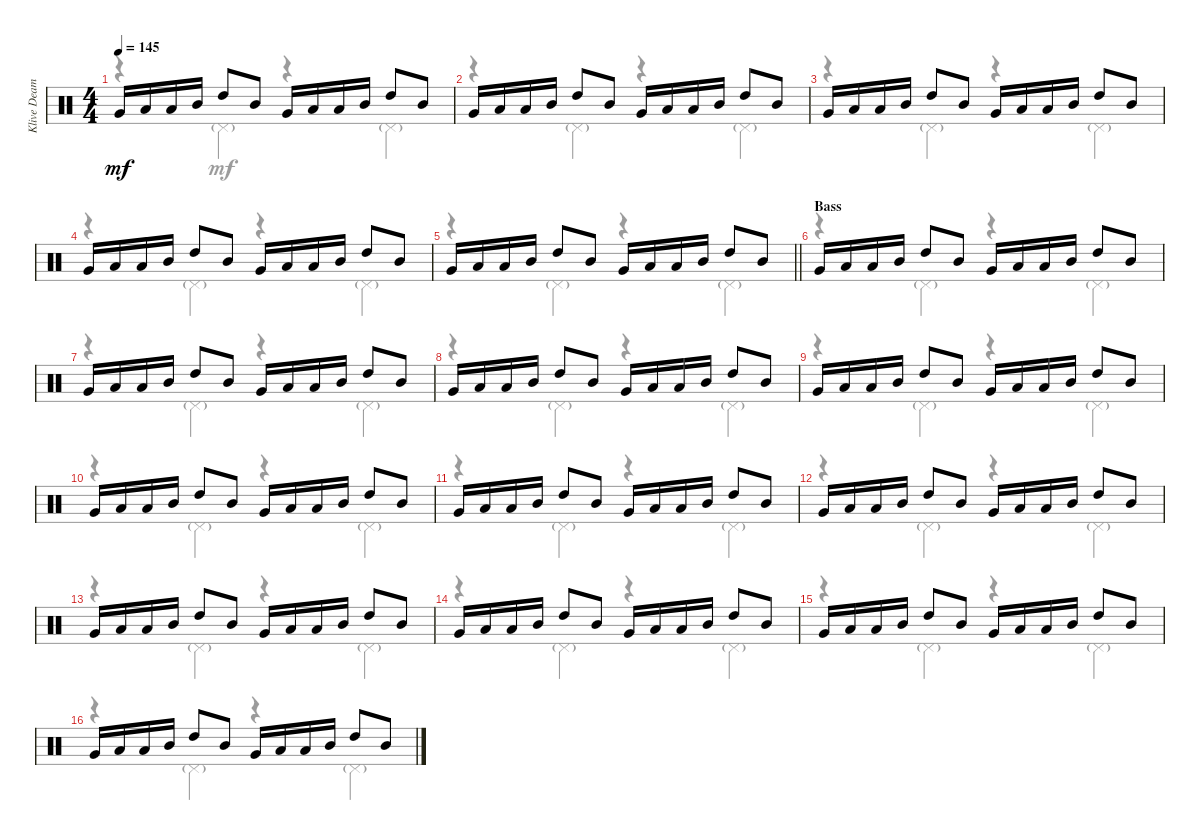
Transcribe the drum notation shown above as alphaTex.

\track ("Klive Deamer" "Klive Deam") {instrument percussion}
\staff {score}
\articulation defaults
\voice
\ts (4 4)
\tempo 145
\clef neutral
\ks c "Very Low Tom (hit)".16{dy mf} "Low Tom (hit)".16 "Low Tom (hit)".16 "Mid Tom (hit)".16 "High Tom (hit)".8 "Mid Tom (hit)".8 "Very Low Tom (hit)".16 "Low Tom (hit)".16 "Low Tom (hit)".16 "Mid Tom (hit)".16 "High Tom (hit)".8 "Mid Tom (hit)".8
|
"Very Low Tom (hit)".16 "Low Tom (hit)".16 "Low Tom (hit)".16 "Mid Tom (hit)".16 "High Tom (hit)".8 "Mid Tom (hit)".8 "Very Low Tom (hit)".16 "Low Tom (hit)".16 "Low Tom (hit)".16 "Mid Tom (hit)".16 "High Tom (hit)".8 "Mid Tom (hit)".8 |
"Very Low Tom (hit)".16 "Low Tom (hit)".16 "Low Tom (hit)".16 "Mid Tom (hit)".16 "High Tom (hit)".8 "Mid Tom (hit)".8 "Very Low Tom (hit)".16 "Low Tom (hit)".16 "Low Tom (hit)".16 "Mid Tom (hit)".16 "High Tom (hit)".8 "Mid Tom (hit)".8 |
"Very Low Tom (hit)".16 "Low Tom (hit)".16 "Low Tom (hit)".16 "Mid Tom (hit)".16 "High Tom (hit)".8 "Mid Tom (hit)".8 "Very Low Tom (hit)".16 "Low Tom (hit)".16 "Low Tom (hit)".16 "Mid Tom (hit)".16 "High Tom (hit)".8 "Mid Tom (hit)".8 |
\barLineRight lightlight "Very Low Tom (hit)".16 "Low Tom (hit)".16 "Low Tom (hit)".16 "Mid Tom (hit)".16 "High Tom (hit)".8 "Mid Tom (hit)".8 "Very Low Tom (hit)".16 "Low Tom (hit)".16 "Low Tom (hit)".16 "Mid Tom (hit)".16 "High Tom (hit)".8 "Mid Tom (hit)".8
|
\section ("" "Bass")
"Very Low Tom (hit)".16 "Low Tom (hit)".16 "Low Tom (hit)".16 "Mid Tom (hit)".16 "High Tom (hit)".8 "Mid Tom (hit)".8 "Very Low Tom (hit)".16 "Low Tom (hit)".16 "Low Tom (hit)".16 "Mid Tom (hit)".16 "High Tom (hit)".8 "Mid Tom (hit)".8 |
"Very Low Tom (hit)".16 "Low Tom (hit)".16 "Low Tom (hit)".16 "Mid Tom (hit)".16 "High Tom (hit)".8 "Mid Tom (hit)".8 "Very Low Tom (hit)".16 "Low Tom (hit)".16 "Low Tom (hit)".16 "Mid Tom (hit)".16 "High Tom (hit)".8 "Mid Tom (hit)".8 |
"Very Low Tom (hit)".16 "Low Tom (hit)".16 "Low Tom (hit)".16 "Mid Tom (hit)".16 "High Tom (hit)".8 "Mid Tom (hit)".8 "Very Low Tom (hit)".16 "Low Tom (hit)".16 "Low Tom (hit)".16 "Mid Tom (hit)".16 "High Tom (hit)".8 "Mid Tom (hit)".8 |
"Very Low Tom (hit)".16 "Low Tom (hit)".16 "Low Tom (hit)".16 "Mid Tom (hit)".16 "High Tom (hit)".8 "Mid Tom (hit)".8 "Very Low Tom (hit)".16 "Low Tom (hit)".16 "Low Tom (hit)".16 "Mid Tom (hit)".16 "High Tom (hit)".8 "Mid Tom (hit)".8 |
"Very Low Tom (hit)".16 "Low Tom (hit)".16 "Low Tom (hit)".16 "Mid Tom (hit)".16 "High Tom (hit)".8 "Mid Tom (hit)".8 "Very Low Tom (hit)".16 "Low Tom (hit)".16 "Low Tom (hit)".16 "Mid Tom (hit)".16 "High Tom (hit)".8 "Mid Tom (hit)".8 |
"Very Low Tom (hit)".16 "Low Tom (hit)".16 "Low Tom (hit)".16 "Mid Tom (hit)".16 "High Tom (hit)".8 "Mid Tom (hit)".8 "Very Low Tom (hit)".16 "Low Tom (hit)".16 "Low Tom (hit)".16 "Mid Tom (hit)".16 "High Tom (hit)".8 "Mid Tom (hit)".8 |
"Very Low Tom (hit)".16 "Low Tom (hit)".16 "Low Tom (hit)".16 "Mid Tom (hit)".16 "High Tom (hit)".8 "Mid Tom (hit)".8 "Very Low Tom (hit)".16 "Low Tom (hit)".16 "Low Tom (hit)".16 "Mid Tom (hit)".16 "High Tom (hit)".8 "Mid Tom (hit)".8 |
"Very Low Tom (hit)".16 "Low Tom (hit)".16 "Low Tom (hit)".16 "Mid Tom (hit)".16 "High Tom (hit)".8 "Mid Tom (hit)".8 "Very Low Tom (hit)".16 "Low Tom (hit)".16 "Low Tom (hit)".16 "Mid Tom (hit)".16 "High Tom (hit)".8 "Mid Tom (hit)".8 |
"Very Low Tom (hit)".16 "Low Tom (hit)".16 "Low Tom (hit)".16 "Mid Tom (hit)".16 "High Tom (hit)".8 "Mid Tom (hit)".8 "Very Low Tom (hit)".16 "Low Tom (hit)".16 "Low Tom (hit)".16 "Mid Tom (hit)".16 "High Tom (hit)".8 "Mid Tom (hit)".8 |
"Very Low Tom (hit)".16 "Low Tom (hit)".16 "Low Tom (hit)".16 "Mid Tom (hit)".16 "High Tom (hit)".8 "Mid Tom (hit)".8 "Very Low Tom (hit)".16 "Low Tom (hit)".16 "Low Tom (hit)".16 "Mid Tom (hit)".16 "High Tom (hit)".8 "Mid Tom (hit)".8 |
"Very Low Tom (hit)".16 "Low Tom (hit)".16 "Low Tom (hit)".16 "Mid Tom (hit)".16 "High Tom (hit)".8 "Mid Tom (hit)".8 "Very Low Tom (hit)".16 "Low Tom (hit)".16 "Low Tom (hit)".16 "Mid Tom (hit)".16 "High Tom (hit)".8 "Mid Tom (hit)".8
\voice
\clef neutral
\ottava regular
\simile none
\ks c
r.4{dy mf} "Pedal Hi-Hat (hit)"{g}.4 r.4 "Pedal Hi-Hat (hit)"{g}.4 |
r.4 "Pedal Hi-Hat (hit)"{g}.4 r.4 "Pedal Hi-Hat (hit)"{g}.4 |
r.4 "Pedal Hi-Hat (hit)"{g}.4 r.4 "Pedal Hi-Hat (hit)"{g}.4 |
r.4 "Pedal Hi-Hat (hit)"{g}.4 r.4 "Pedal Hi-Hat (hit)"{g}.4 |
\barLineRight lightlight
r.4 "Pedal Hi-Hat (hit)"{g}.4 r.4 "Pedal Hi-Hat (hit)"{g}.4 |
r.4 "Pedal Hi-Hat (hit)"{g}.4 r.4 "Pedal Hi-Hat (hit)"{g}.4 |
r.4 "Pedal Hi-Hat (hit)"{g}.4 r.4 "Pedal Hi-Hat (hit)"{g}.4 |
r.4 "Pedal Hi-Hat (hit)"{g}.4 r.4 "Pedal Hi-Hat (hit)"{g}.4 |
r.4 "Pedal Hi-Hat (hit)"{g}.4 r.4 "Pedal Hi-Hat (hit)"{g}.4 |
r.4 "Pedal Hi-Hat (hit)"{g}.4 r.4 "Pedal Hi-Hat (hit)"{g}.4 |
r.4 "Pedal Hi-Hat (hit)"{g}.4 r.4 "Pedal Hi-Hat (hit)"{g}.4 |
r.4 "Pedal Hi-Hat (hit)"{g}.4 r.4 "Pedal Hi-Hat (hit)"{g}.4 |
r.4 "Pedal Hi-Hat (hit)"{g}.4 r.4 "Pedal Hi-Hat (hit)"{g}.4 |
r.4 "Pedal Hi-Hat (hit)"{g}.4 r.4 "Pedal Hi-Hat (hit)"{g}.4 |
r.4 "Pedal Hi-Hat (hit)"{g}.4 r.4 "Pedal Hi-Hat (hit)"{g}.4 |
r.4 "Pedal Hi-Hat (hit)"{g}.4 r.4 "Pedal Hi-Hat (hit)"{g}.4
